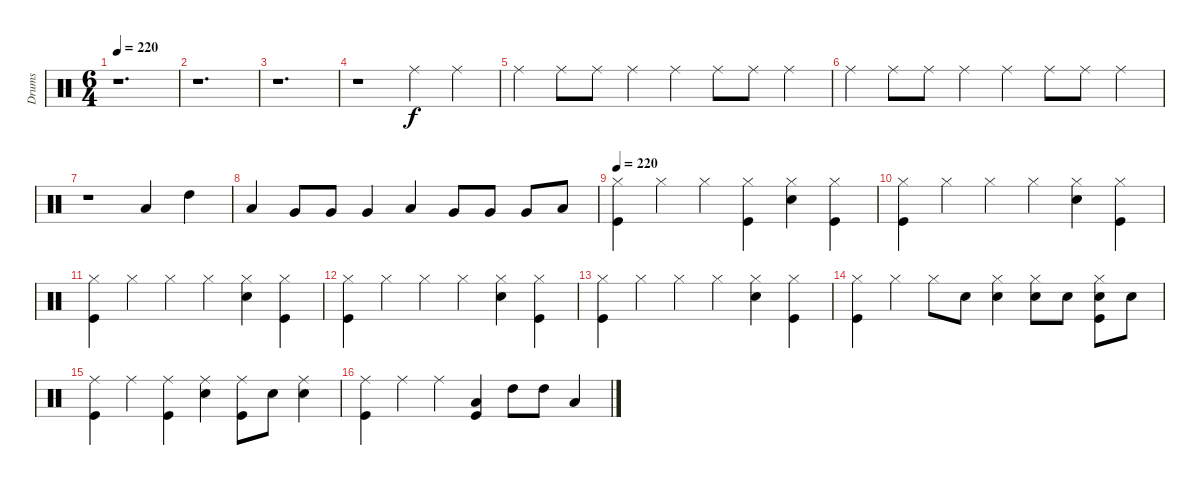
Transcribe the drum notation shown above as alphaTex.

\track ("Drums" "Drums") {instrument percussion}
\staff {score}
\articulation defaults
\ts (6 4)
\tempo 220
\clef neutral
\ks c
r.1{d dy f} |
r.1{d} |
r.1{d} |
r.1 "Ride (middle)".4 "Ride (middle)".4 |
"Ride (middle)".4 "Ride (middle)".8 "Ride (middle)".8 "Ride (middle)".4 "Ride (middle)".4 "Ride (middle)".8 "Ride (middle)".8 "Ride (middle)".4 |
"Ride (middle)".4 "Ride (middle)".8 "Ride (middle)".8 "Ride (middle)".4 "Ride (middle)".4 "Ride (middle)".8 "Ride (middle)".8 "Ride (middle)".4 |
r.1 "Low Tom (hit)".4 "High Tom (hit)".4 |
"Low Floor Tom (hit)".4 "Very Low Tom (hit)".8 "Very Low Tom (hit)".8 "Very Low Tom (hit)".4 "Low Floor Tom (hit)".4 "Very Low Tom (hit)".8 "Very Low Tom (hit)".8 "Very Low Tom (hit)".8 "Low Floor Tom (hit)".8 |
\tempo 220
("Hi-Hat (closed)" "Kick (hit)").4 "Hi-Hat (closed)".4 "Hi-Hat (closed)".4 ("Hi-Hat (closed)" "Kick (hit)").4 ("Hi-Hat (closed)" "Snare (hit) 2").4 ("Hi-Hat (closed)" "Kick (hit)").4 |
("Hi-Hat (closed)" "Kick (hit)").4 "Hi-Hat (closed)".4 "Hi-Hat (closed)".4 "Hi-Hat (closed)".4 ("Hi-Hat (closed)" "Snare (hit) 2").4 ("Hi-Hat (closed)" "Kick (hit)").4 |
("Hi-Hat (closed)" "Kick (hit)").4 "Hi-Hat (closed)".4 "Hi-Hat (closed)".4 "Hi-Hat (closed)".4 ("Hi-Hat (closed)" "Snare (hit) 2").4 ("Hi-Hat (closed)" "Kick (hit)").4 |
("Hi-Hat (closed)" "Kick (hit)").4 "Hi-Hat (closed)".4 "Hi-Hat (closed)".4 "Hi-Hat (closed)".4 ("Hi-Hat (closed)" "Snare (hit) 2").4 ("Hi-Hat (closed)" "Kick (hit)").4 |
("Hi-Hat (closed)" "Kick (hit)").4 "Hi-Hat (closed)".4 "Hi-Hat (closed)".4 "Hi-Hat (closed)".4 ("Hi-Hat (closed)" "Snare (hit) 2").4 ("Hi-Hat (closed)" "Kick (hit)").4 |
("Hi-Hat (closed)" "Kick (hit)").4 "Hi-Hat (closed)".4 "Hi-Hat (closed)".8 "Snare (hit) 2".8 ("Hi-Hat (closed)" "Snare (hit) 2").4 ("Hi-Hat (closed)" "Snare (hit) 2").8 "Snare (hit) 2".8 ("Hi-Hat (closed)" "Snare (hit) 2" "Kick (hit)").8 "Snare (hit) 2".8 |
("Ride (middle)" "Kick (hit)").4 "Ride (middle)".4 ("Ride (middle)" "Kick (hit)").4 ("Ride (middle)" "Snare (hit) 2").4 ("Ride (middle)" "Kick (hit)").8 "Snare (hit) 2".8 ("Ride (middle)" "Snare (hit) 2").4 |
("Ride (middle)" "Kick (hit)").4 "Ride (middle)".4 "Ride (middle)".4 ("Low Tom (hit)" "Kick (hit)").4 "High Tom (hit)".8 "High Tom (hit)".8 "Low Floor Tom (hit)".4
